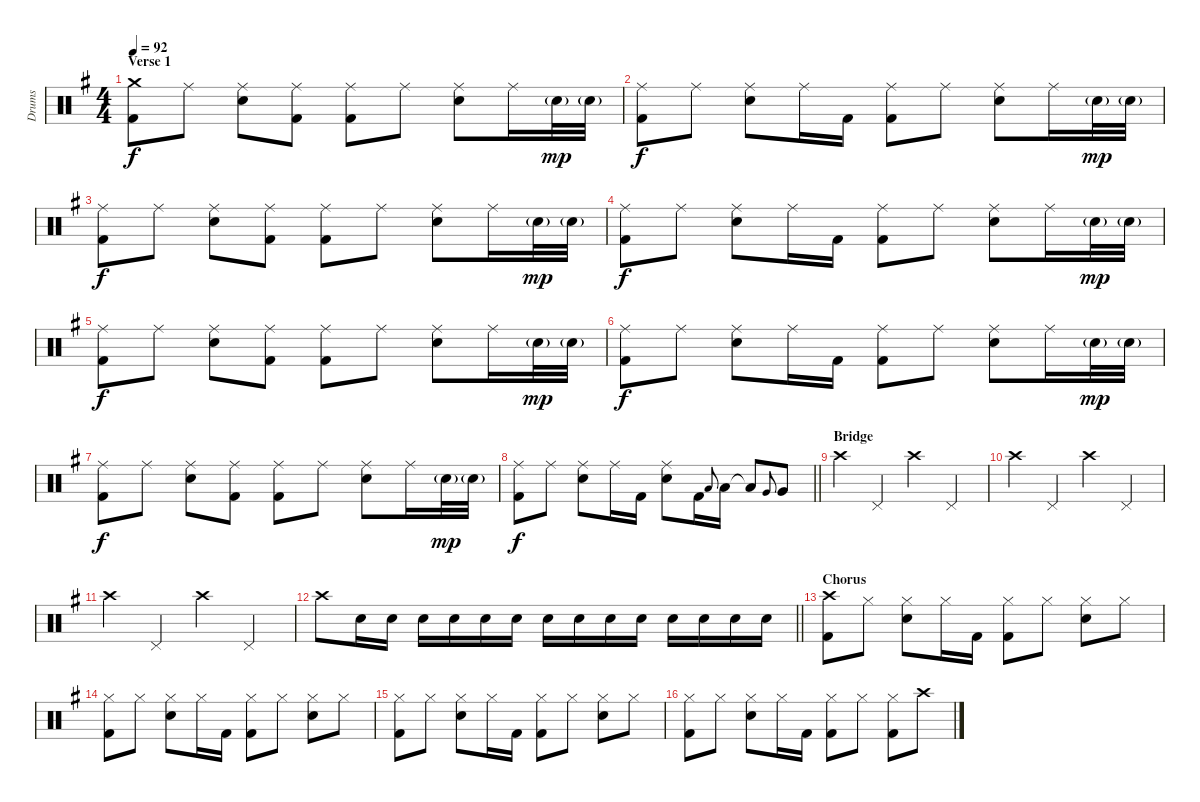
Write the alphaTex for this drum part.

\track ("Drums" "Drums") {instrument percussion}
\staff {score}
\articulation defaults
\ts (4 4)
\section ("" "Verse 1")
\tempo 92
\clef neutral
\ks eminor
("Crash medium (hit)" "Kick (hit) 2").8{dy f} "Ride (middle)".8 ("Ride (middle)" "Electric Snare (hit)").8 ("Ride (middle)" "Kick (hit) 2").8 ("Ride (middle)" "Kick (hit) 2").8 "Ride (middle)".8 ("Ride (middle)" "Electric Snare (hit)").8 "Ride (middle)".16 "Electric Snare (hit)"{g}.32{dy mp} "Electric Snare (hit)"{g}.32 |
("Ride (middle)" "Kick (hit) 2").8{dy f} "Ride (middle)".8 ("Ride (middle)" "Electric Snare (hit)").8 "Ride (middle)".16 "Kick (hit) 2".16 ("Ride (middle)" "Kick (hit) 2").8 "Ride (middle)".8 ("Ride (middle)" "Electric Snare (hit)").8 "Ride (middle)".16 "Electric Snare (hit)"{g}.32{dy mp} "Electric Snare (hit)"{g}.32 |
("Ride (middle)" "Kick (hit) 2").8{dy f} "Ride (middle)".8 ("Ride (middle)" "Electric Snare (hit)").8 ("Ride (middle)" "Kick (hit) 2").8 ("Ride (middle)" "Kick (hit) 2").8 "Ride (middle)".8 ("Ride (middle)" "Electric Snare (hit)").8 "Ride (middle)".16 "Electric Snare (hit)"{g}.32{dy mp} "Electric Snare (hit)"{g}.32 |
("Ride (middle)" "Kick (hit) 2").8{dy f} "Ride (middle)".8 ("Ride (middle)" "Electric Snare (hit)").8 "Ride (middle)".16 "Kick (hit) 2".16 ("Ride (middle)" "Kick (hit) 2").8 "Ride (middle)".8 ("Ride (middle)" "Electric Snare (hit)").8 "Ride (middle)".16 "Electric Snare (hit)"{g}.32{dy mp} "Electric Snare (hit)"{g}.32 |
("Ride (middle)" "Kick (hit) 2").8{dy f} "Ride (middle)".8 ("Ride (middle)" "Electric Snare (hit)").8 ("Ride (middle)" "Kick (hit) 2").8 ("Ride (middle)" "Kick (hit) 2").8 "Ride (middle)".8 ("Ride (middle)" "Electric Snare (hit)").8 "Ride (middle)".16 "Electric Snare (hit)"{g}.32{dy mp} "Electric Snare (hit)"{g}.32 |
("Ride (middle)" "Kick (hit) 2").8{dy f} "Ride (middle)".8 ("Ride (middle)" "Electric Snare (hit)").8 "Ride (middle)".16 "Kick (hit) 2".16 ("Ride (middle)" "Kick (hit) 2").8 "Ride (middle)".8 ("Ride (middle)" "Electric Snare (hit)").8 "Ride (middle)".16 "Electric Snare (hit)"{g}.32{dy mp} "Electric Snare (hit)"{g}.32 |
("Ride (middle)" "Kick (hit) 2").8{dy f} "Ride (middle)".8 ("Ride (middle)" "Electric Snare (hit)").8 ("Ride (middle)" "Kick (hit) 2").8 ("Ride (middle)" "Kick (hit) 2").8 "Ride (middle)".8 ("Ride (middle)" "Electric Snare (hit)").8 "Ride (middle)".16 "Electric Snare (hit)"{g}.32{dy mp} "Electric Snare (hit)"{g}.32 |
\barLineRight lightlight
("Ride (middle)" "Kick (hit) 2").8{dy f} "Ride (middle)".8 ("Ride (middle)" "Electric Snare (hit)").8 "Ride (middle)".16 "Kick (hit) 2".16 ("Ride (middle)" "Electric Snare (hit)").8 "Kick (hit) 2".16 "Low Tom (hit)".8{gr onbeat} "Low Tom (hit)".16 "Low Tom (hit)"{t}.8 "Very Low Tom (hit)".8{gr onbeat} "Very Low Tom (hit)".8 |
\section ("" "Bridge")
"Crash high (hit)".4 "Pedal Hi-Hat (hit)".4 "Crash high (hit)".4 "Pedal Hi-Hat (hit)".4 |
"Crash high (hit)".4 "Pedal Hi-Hat (hit)".4 "Crash high (hit)".4 "Pedal Hi-Hat (hit)".4 |
"Crash high (hit)".4 "Pedal Hi-Hat (hit)".4 "Crash high (hit)".4 "Pedal Hi-Hat (hit)".4 |
\barLineRight lightlight "Crash high (hit)".8 "Electric Snare (hit)".16 "Electric Snare (hit)".16 "Electric Snare (hit)".16 "Electric Snare (hit)".16 "Electric Snare (hit)".16 "Electric Snare (hit)".16 "Electric Snare (hit)".16 "Electric Snare (hit)".16 "Electric Snare (hit)".16 "Electric Snare (hit)".16 "Electric Snare (hit)".16 "Electric Snare (hit)".16 "Electric Snare (hit)".16 "Electric Snare (hit)".16
|
\section ("" "Chorus")
("Crash high (hit)" "Kick (hit) 2").8 "Hi-Hat (closed)".8 ("Hi-Hat (closed)" "Electric Snare (hit)").8 "Hi-Hat (closed)".16 "Kick (hit) 2".16 ("Hi-Hat (closed)" "Kick (hit) 2").8 "Hi-Hat (closed)".8 ("Hi-Hat (closed)" "Electric Snare (hit)").8 "Hi-Hat (closed)".8 |
("Hi-Hat (closed)" "Kick (hit) 2").8 "Hi-Hat (closed)".8 ("Hi-Hat (closed)" "Electric Snare (hit)").8 "Hi-Hat (closed)".16 "Kick (hit) 2".16 ("Hi-Hat (closed)" "Kick (hit) 2").8 "Hi-Hat (closed)".8 ("Hi-Hat (closed)" "Electric Snare (hit)").8 "Hi-Hat (closed)".8 |
("Hi-Hat (closed)" "Kick (hit) 2").8 "Hi-Hat (closed)".8 ("Hi-Hat (closed)" "Electric Snare (hit)").8 "Hi-Hat (closed)".16 "Kick (hit) 2".16 ("Hi-Hat (closed)" "Kick (hit) 2").8 "Hi-Hat (closed)".8 ("Hi-Hat (closed)" "Electric Snare (hit)").8 "Hi-Hat (closed)".8 |
("Hi-Hat (closed)" "Kick (hit) 2").8 "Hi-Hat (closed)".8 ("Hi-Hat (closed)" "Electric Snare (hit)").8 "Hi-Hat (closed)".16 "Kick (hit) 2".16 ("Hi-Hat (closed)" "Kick (hit) 2").8 "Hi-Hat (closed)".8 ("Hi-Hat (closed)" "Kick (hit) 2").8 "Crash high (hit)".8
